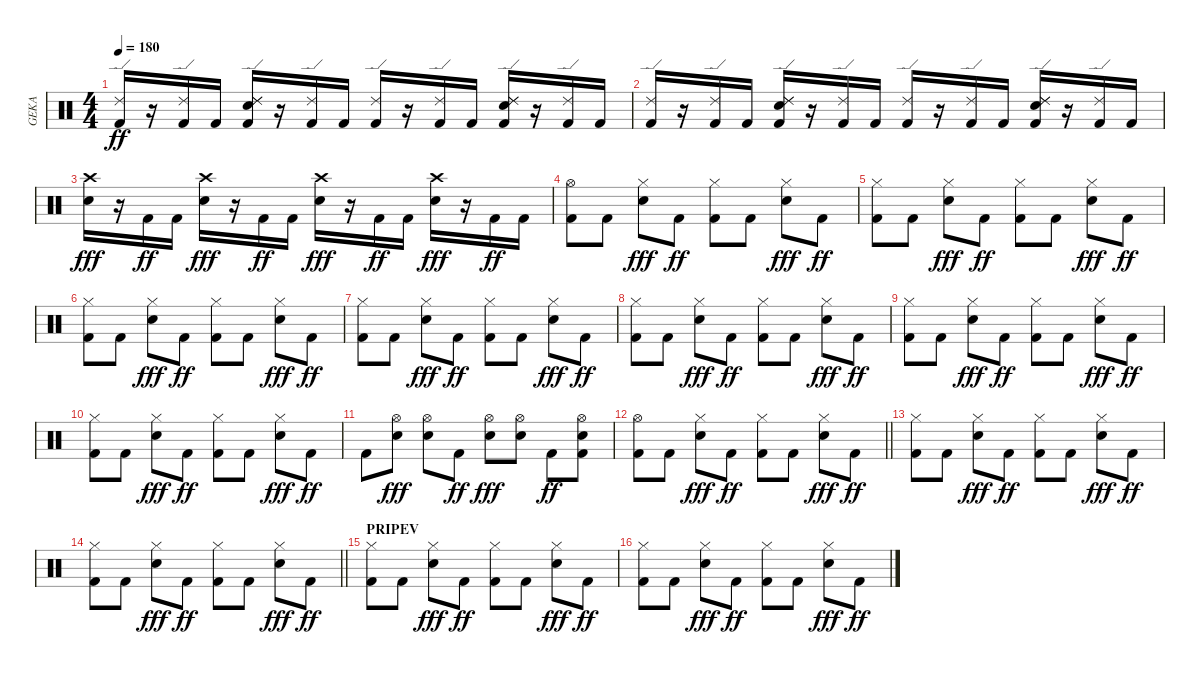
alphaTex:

\track ("GEKA" "GEKA") {instrument percussion}
\staff {score}
\articulation defaults
\ts (4 4)
\tempo 180
\clef neutral
\ks c
("Ride (edge) 2" "Kick (hit) 2").16{dy ff} r.16 ("Ride (edge) 2" "Kick (hit) 2").16 "Kick (hit) 2".16 ("Ride (edge) 2" "Snare (hit) 2" "Kick (hit) 2" "Ride (edge) 2").16 r.16 ("Ride (edge) 2" "Kick (hit) 2").16 "Kick (hit) 2".16 ("Ride (edge) 2" "Kick (hit) 2").16 r.16 ("Ride (edge) 2" "Kick (hit) 2").16 "Kick (hit) 2".16 ("Ride (edge) 2" "Snare (hit) 2" "Kick (hit) 2" "Ride (edge) 2").16 r.16 ("Ride (edge) 2" "Kick (hit) 2").16 "Kick (hit) 2".16 |
("Ride (edge) 2" "Kick (hit) 2").16 r.16 ("Ride (edge) 2" "Kick (hit) 2").16 "Kick (hit) 2".16 ("Ride (edge) 2" "Snare (hit) 2" "Kick (hit) 2" "Ride (edge) 2").16 r.16 ("Ride (edge) 2" "Kick (hit) 2").16 "Kick (hit) 2".16 ("Ride (edge) 2" "Kick (hit) 2").16 r.16 ("Ride (edge) 2" "Kick (hit) 2").16 "Kick (hit) 2".16 ("Ride (edge) 2" "Snare (hit) 2" "Kick (hit) 2" "Ride (edge) 2").16 r.16 ("Ride (edge) 2" "Kick (hit) 2").16 "Kick (hit) 2".16 |
("Crash high (hit)" "Snare (hit) 2").16{dy fff} r.16 "Kick (hit) 2".16{dy ff} "Kick (hit) 2".16 ("Crash high (hit)" "Snare (hit) 2").16{dy fff} r.16 "Kick (hit) 2".16{dy ff} "Kick (hit) 2".16 ("Crash high (hit)" "Snare (hit) 2").16{dy fff} r.16 "Kick (hit) 2".16{dy ff} "Kick (hit) 2".16 ("Crash high (hit)" "Snare (hit) 2").16{dy fff} r.16 "Kick (hit) 2".16{dy ff} "Kick (hit) 2".16 |
("Hi-Hat (open)" "Kick (hit) 2").8 "Kick (hit) 2".8 ("Hi-Hat (closed)" "Snare (hit) 2").8{dy fff} "Kick (hit) 2".8{dy ff} ("Hi-Hat (closed)" "Kick (hit) 2").8 "Kick (hit) 2".8 ("Hi-Hat (closed)" "Snare (hit) 2").8{dy fff} "Kick (hit) 2".8{dy ff} |
("Hi-Hat (closed)" "Kick (hit) 2").8 "Kick (hit) 2".8 ("Hi-Hat (closed)" "Snare (hit) 2").8{dy fff} "Kick (hit) 2".8{dy ff} ("Hi-Hat (closed)" "Kick (hit) 2").8 "Kick (hit) 2".8 ("Hi-Hat (closed)" "Snare (hit) 2").8{dy fff} "Kick (hit) 2".8{dy ff} |
("Hi-Hat (closed)" "Kick (hit) 2").8 "Kick (hit) 2".8 ("Hi-Hat (closed)" "Snare (hit) 2").8{dy fff} "Kick (hit) 2".8{dy ff} ("Hi-Hat (closed)" "Kick (hit) 2").8 "Kick (hit) 2".8 ("Hi-Hat (closed)" "Snare (hit) 2").8{dy fff} "Kick (hit) 2".8{dy ff} |
("Hi-Hat (closed)" "Kick (hit) 2").8 "Kick (hit) 2".8 ("Hi-Hat (closed)" "Snare (hit) 2").8{dy fff} "Kick (hit) 2".8{dy ff} ("Hi-Hat (closed)" "Kick (hit) 2").8 "Kick (hit) 2".8 ("Hi-Hat (closed)" "Snare (hit) 2").8{dy fff} "Kick (hit) 2".8{dy ff} |
("Hi-Hat (closed)" "Kick (hit) 2").8 "Kick (hit) 2".8 ("Hi-Hat (closed)" "Snare (hit) 2").8{dy fff} "Kick (hit) 2".8{dy ff} ("Hi-Hat (closed)" "Kick (hit) 2").8 "Kick (hit) 2".8 ("Hi-Hat (closed)" "Snare (hit) 2").8{dy fff} "Kick (hit) 2".8{dy ff} |
("Hi-Hat (closed)" "Kick (hit) 2").8 "Kick (hit) 2".8 ("Hi-Hat (closed)" "Snare (hit) 2").8{dy fff} "Kick (hit) 2".8{dy ff} ("Hi-Hat (closed)" "Kick (hit) 2").8 "Kick (hit) 2".8 ("Hi-Hat (closed)" "Snare (hit) 2").8{dy fff} "Kick (hit) 2".8{dy ff} |
("Hi-Hat (closed)" "Kick (hit) 2").8 "Kick (hit) 2".8 ("Hi-Hat (closed)" "Snare (hit) 2").8{dy fff} "Kick (hit) 2".8{dy ff} ("Hi-Hat (closed)" "Kick (hit) 2").8 "Kick (hit) 2".8 ("Hi-Hat (closed)" "Snare (hit) 2").8{dy fff} "Kick (hit) 2".8{dy ff} |
"Kick (hit) 2".8 ("Hi-Hat (open)" "Snare (hit) 2").8{dy fff} ("Hi-Hat (open)" "Snare (hit) 2").8 "Kick (hit) 2".8{dy ff} ("Hi-Hat (open)" "Snare (hit) 2").8{dy fff} ("Hi-Hat (open)" "Snare (hit) 2").8 "Kick (hit) 2".8{dy ff} ("Hi-Hat (open)" "Snare (hit) 2" "Kick (hit) 2").8 |
\barLineRight lightlight
("Hi-Hat (open)" "Kick (hit) 2").8 "Kick (hit) 2".8 ("Hi-Hat (closed)" "Snare (hit) 2").8{dy fff} "Kick (hit) 2".8{dy ff} ("Hi-Hat (closed)" "Kick (hit) 2").8 "Kick (hit) 2".8 ("Hi-Hat (closed)" "Snare (hit) 2").8{dy fff} "Kick (hit) 2".8{dy ff} |
("Hi-Hat (closed)" "Kick (hit) 2").8 "Kick (hit) 2".8 ("Hi-Hat (closed)" "Snare (hit) 2").8{dy fff} "Kick (hit) 2".8{dy ff} ("Hi-Hat (closed)" "Kick (hit) 2").8 "Kick (hit) 2".8 ("Hi-Hat (closed)" "Snare (hit) 2").8{dy fff} "Kick (hit) 2".8{dy ff} |
\barLineRight lightlight
("Hi-Hat (closed)" "Kick (hit) 2").8 "Kick (hit) 2".8 ("Hi-Hat (closed)" "Snare (hit) 2").8{dy fff} "Kick (hit) 2".8{dy ff} ("Hi-Hat (closed)" "Kick (hit) 2").8 "Kick (hit) 2".8 ("Hi-Hat (closed)" "Snare (hit) 2").8{dy fff} "Kick (hit) 2".8{dy ff} |
\section ("" "PRIPEV")
("Hi-Hat (closed)" "Kick (hit) 2").8 "Kick (hit) 2".8 ("Hi-Hat (closed)" "Snare (hit) 2").8{dy fff} "Kick (hit) 2".8{dy ff} ("Hi-Hat (closed)" "Kick (hit) 2").8 "Kick (hit) 2".8 ("Hi-Hat (closed)" "Snare (hit) 2").8{dy fff} "Kick (hit) 2".8{dy ff} |
("Hi-Hat (closed)" "Kick (hit) 2").8 "Kick (hit) 2".8 ("Hi-Hat (closed)" "Snare (hit) 2").8{dy fff} "Kick (hit) 2".8{dy ff} ("Hi-Hat (closed)" "Kick (hit) 2").8 "Kick (hit) 2".8 ("Hi-Hat (closed)" "Snare (hit) 2").8{dy fff} "Kick (hit) 2".8{dy ff}
